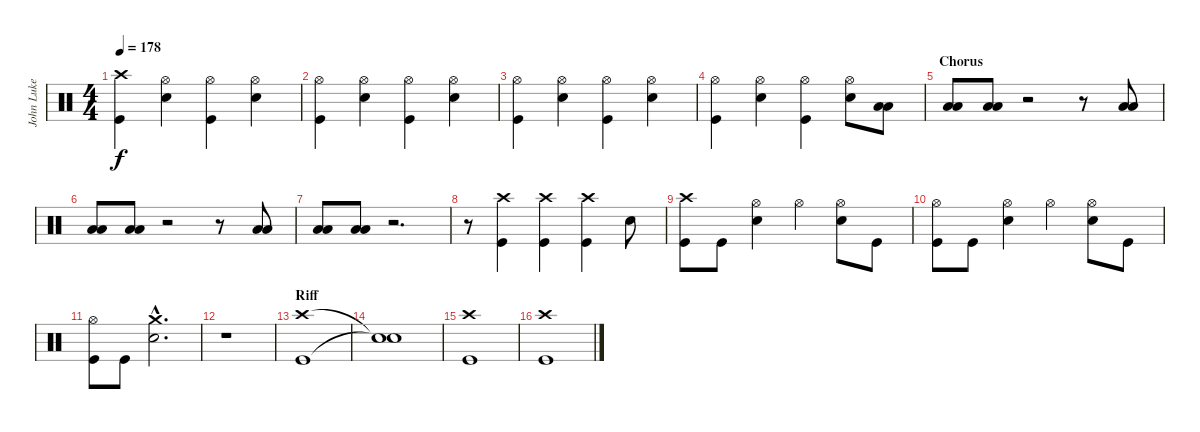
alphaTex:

\track ("John Luke (Drums)" "John Luke ") {instrument percussion}
\staff {score}
\articulation defaults
\ts (4 4)
\tempo 178
\clef neutral
\ks c
("Crash high (hit)" "Kick (hit)").4{dy f} ("Hi-Hat (open)" "Electric Snare (hit)").4 ("Hi-Hat (open)" "Kick (hit)").4 ("Hi-Hat (open)" "Electric Snare (hit)").4 |
("Hi-Hat (open)" "Kick (hit)").4 ("Hi-Hat (open)" "Electric Snare (hit)").4 ("Hi-Hat (open)" "Kick (hit)").4 ("Hi-Hat (open)" "Electric Snare (hit)").4 |
("Hi-Hat (open)" "Kick (hit)").4 ("Hi-Hat (open)" "Electric Snare (hit)").4 ("Hi-Hat (open)" "Kick (hit)").4 ("Hi-Hat (open)" "Electric Snare (hit)").4 |
("Hi-Hat (open)" "Kick (hit)").4 ("Hi-Hat (open)" "Electric Snare (hit)").4 ("Hi-Hat (open)" "Kick (hit)").4 ("Hi-Hat (open)" "Electric Snare (hit)").8 ("Low Floor Tom (hit)" "Low Floor Tom (hit)").8{bu 120} |
\section ("" "Chorus")
("Low Floor Tom (hit)" "Low Floor Tom (hit)").8{bu 120} ("Low Floor Tom (hit)" "Low Floor Tom (hit)").8{bu 120} r.2 r.8 ("Low Floor Tom (hit)" "Low Floor Tom (hit)").8{bu 120} |
("Low Floor Tom (hit)" "Low Floor Tom (hit)").8{bu 120} ("Low Floor Tom (hit)" "Low Floor Tom (hit)").8{bu 120} r.2 r.8 ("Low Floor Tom (hit)" "Low Floor Tom (hit)").8{bu 120} |
("Low Floor Tom (hit)" "Low Floor Tom (hit)").8{bu 120} ("Low Floor Tom (hit)" "Low Floor Tom (hit)").8{bu 120} r.2{d} |
r.8 ("Crash high (hit)" "Kick (hit)").4 ("Crash high (hit)" "Kick (hit)").4 ("Crash high (hit)" "Kick (hit)").4 "Electric Snare (hit)".8 |
("Crash high (hit)" "Kick (hit)").8 "Kick (hit)".8 ("Hi-Hat (open)" "Electric Snare (hit)").4 "Hi-Hat (open)".4 ("Hi-Hat (open)" "Electric Snare (hit)").8 "Kick (hit)".8 |
("Hi-Hat (open)" "Kick (hit)").8 "Kick (hit)".8 ("Hi-Hat (open)" "Electric Snare (hit)").4 "Hi-Hat (open)".4 ("Hi-Hat (open)" "Electric Snare (hit)").8 "Kick (hit)".8 |
("Hi-Hat (open)" "Kick (hit)").8 "Kick (hit)".8 ("Crash medium (hit)"{hac} "Electric Snare (hit)"{hac}).2{d} |
r.1 |
\section ("" "Riff")
("Crash high (hit)" "Kick (hit)").1 |
("Snare (hit)"{t} "Snare (hit)"{t}).1 |
("Crash high (hit)" "Kick (hit)").1 |
("Crash high (hit)" "Kick (hit)").1
